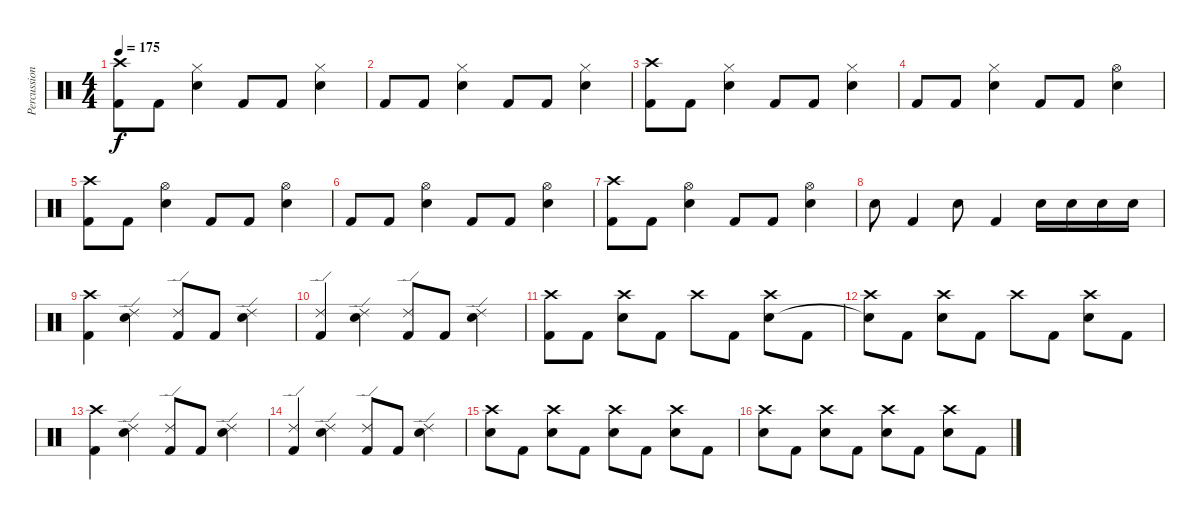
\track ("Percussion" "Percussion") {instrument percussion}
\staff {score}
\articulation defaults
\ts (4 4)
\tempo 175
\clef neutral
\ks c
("Crash high (hit)" "Kick (hit) 2").8{dy f} "Kick (hit) 2".8 ("Hi-Hat (closed)" "Snare (hit) 2").4 "Kick (hit) 2".8 "Kick (hit) 2".8 ("Hi-Hat (closed)" "Snare (hit) 2").4 |
"Kick (hit) 2".8 "Kick (hit) 2".8 ("Hi-Hat (closed)" "Snare (hit) 2").4 "Kick (hit) 2".8 "Kick (hit) 2".8 ("Hi-Hat (closed)" "Snare (hit) 2").4 |
("Crash high (hit)" "Kick (hit) 2").8 "Kick (hit) 2".8 ("Hi-Hat (closed)" "Snare (hit) 2").4 "Kick (hit) 2".8 "Kick (hit) 2".8 ("Hi-Hat (closed)" "Snare (hit) 2").4 |
"Kick (hit) 2".8 "Kick (hit) 2".8 ("Hi-Hat (closed)" "Snare (hit) 2").4 "Kick (hit) 2".8 "Kick (hit) 2".8 ("Hi-Hat (open)" "Snare (hit) 2").4 |
("Crash high (hit)" "Kick (hit) 2").8 "Kick (hit) 2".8 ("Hi-Hat (open)" "Snare (hit) 2").4 "Kick (hit) 2".8 "Kick (hit) 2".8 ("Hi-Hat (open)" "Snare (hit) 2").4 |
"Kick (hit) 2".8 "Kick (hit) 2".8 ("Hi-Hat (open)" "Snare (hit) 2").4 "Kick (hit) 2".8 "Kick (hit) 2".8 ("Hi-Hat (open)" "Snare (hit) 2").4 |
("Crash high (hit)" "Kick (hit) 2").8 "Kick (hit) 2".8 ("Hi-Hat (open)" "Snare (hit) 2").4 "Kick (hit) 2".8 "Kick (hit) 2".8 ("Hi-Hat (open)" "Snare (hit) 2").4 |
"Snare (hit) 2".8 "Kick (hit) 2".4 "Snare (hit) 2".8 "Kick (hit) 2".4 "Snare (hit) 2".16 "Snare (hit) 2".16 "Snare (hit) 2".16 "Snare (hit) 2".16 |
("Crash high (hit)" "Kick (hit) 2").4 ("Ride (edge) 2" "Snare (hit) 2").4 ("Ride (edge) 2" "Kick (hit) 2").8 "Kick (hit) 2".8 ("Ride (edge) 2" "Snare (hit) 2").4 |
("Ride (edge) 2" "Kick (hit) 2").4 ("Ride (edge) 2" "Snare (hit) 2").4 ("Ride (edge) 2" "Kick (hit) 2").8 "Kick (hit) 2".8 ("Ride (edge) 2" "Snare (hit) 2").4 |
("Crash high (hit)" "Kick (hit) 2").8 "Kick (hit) 2".8 ("Crash high (hit)" "Snare (hit) 2").8 "Kick (hit) 2".8 "Crash high (hit)".8 "Kick (hit) 2".8 ("Crash high (hit)" "Snare (hit) 2").8 "Kick (hit) 2".8 |
("Crash high (hit)" "Snare (hit)"{t}).8 "Kick (hit) 2".8 ("Crash high (hit)" "Snare (hit) 2").8 "Kick (hit) 2".8 "Crash high (hit)".8 "Kick (hit) 2".8 ("Crash high (hit)" "Snare (hit) 2").8 "Kick (hit) 2".8 |
("Crash high (hit)" "Kick (hit) 2").4 ("Ride (edge) 2" "Snare (hit) 2").4 ("Ride (edge) 2" "Kick (hit) 2").8 "Kick (hit) 2".8 ("Ride (edge) 2" "Snare (hit) 2").4 |
("Ride (edge) 2" "Kick (hit) 2").4 ("Ride (edge) 2" "Snare (hit) 2").4 ("Ride (edge) 2" "Kick (hit) 2").8 "Kick (hit) 2".8 ("Ride (edge) 2" "Snare (hit) 2").4 |
("Crash high (hit)" "Snare (hit) 2").8 "Kick (hit) 2".8 ("Crash high (hit)" "Snare (hit) 2").8 "Kick (hit) 2".8 ("Crash high (hit)" "Snare (hit) 2").8 "Kick (hit) 2".8 ("Crash high (hit)" "Snare (hit) 2").8 "Kick (hit) 2".8 |
("Crash high (hit)" "Snare (hit) 2").8 "Kick (hit) 2".8 ("Crash high (hit)" "Snare (hit) 2").8 "Kick (hit) 2".8 ("Crash high (hit)" "Snare (hit) 2").8 "Kick (hit) 2".8 ("Crash high (hit)" "Snare (hit) 2").8 "Kick (hit) 2".8
